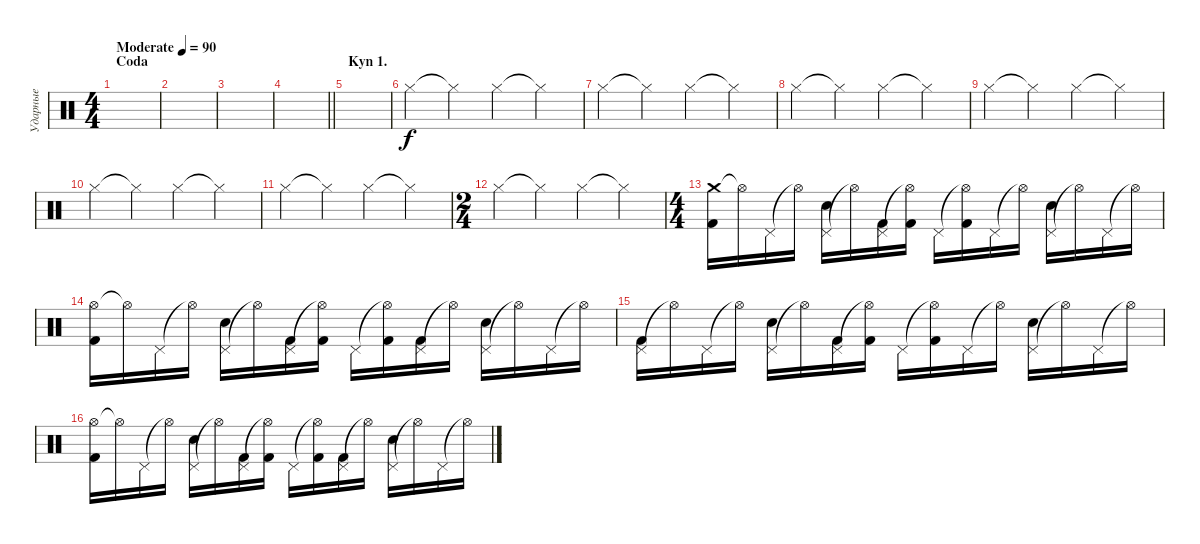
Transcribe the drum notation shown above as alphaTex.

\track ("Ударные" "Ударные") {instrument percussion}
\staff {score}
\articulation defaults
\ts (4 4)
\section ("" "Coda")
\tempo (90 "Moderate")
\clef neutral
\ks c
|
|
|
\barLineRight lightlight
|
\section ("" "Kyn 1.")
|
"Hi-Hat (closed)".4 "Hi-Hat (closed)"{t}.4 "Hi-Hat (closed)".4 "Hi-Hat (closed)"{t}.4 |
"Hi-Hat (closed)".4 "Hi-Hat (closed)"{t}.4 "Hi-Hat (closed)".4 "Hi-Hat (closed)"{t}.4 |
"Hi-Hat (closed)".4 "Hi-Hat (closed)"{t}.4 "Hi-Hat (closed)".4 "Hi-Hat (closed)"{t}.4 |
"Hi-Hat (closed)".4 "Hi-Hat (closed)"{t}.4 "Hi-Hat (closed)".4 "Hi-Hat (closed)"{t}.4 |
"Hi-Hat (closed)".4 "Hi-Hat (closed)"{t}.4 "Hi-Hat (closed)".4 "Hi-Hat (closed)"{t}.4 |
"Hi-Hat (closed)".4 "Hi-Hat (closed)"{t}.4 "Hi-Hat (closed)".4 "Hi-Hat (closed)"{t}.4 |
\ts (2 4)
"Hi-Hat (closed)".4 "Hi-Hat (closed)"{t}.4 "Hi-Hat (closed)".4 "Hi-Hat (closed)"{t}.4 |
\ts (4 4)
("Crash medium (hit)" "Kick (hit) 2").16 "Hi-Hat (open)"{t}.16 "Pedal Hi-Hat (hit)".16 "Hi-Hat (open)"{t}.16 ("Pedal Hi-Hat (hit)" "Snare (hit) 2").16 "Hi-Hat (open)"{t}.16 ("Pedal Hi-Hat (hit)" "Kick (hit) 2").16 ("Hi-Hat (open)"{t} "Kick (hit) 2").16 "Pedal Hi-Hat (hit)".16 ("Hi-Hat (open)"{t} "Kick (hit) 2").16 "Pedal Hi-Hat (hit)".16 "Hi-Hat (open)"{t}.16 ("Pedal Hi-Hat (hit)" "Snare (hit) 2").16 "Hi-Hat (open)"{t}.16 "Pedal Hi-Hat (hit)".16 "Hi-Hat (open)"{t}.16 |
("Hi-Hat (open)" "Kick (hit) 2").16 "Hi-Hat (open)"{t}.16 "Pedal Hi-Hat (hit)".16 "Hi-Hat (open)"{t}.16 ("Pedal Hi-Hat (hit)" "Snare (hit) 2").16 "Hi-Hat (open)"{t}.16 ("Pedal Hi-Hat (hit)" "Kick (hit) 2").16 ("Hi-Hat (open)"{t} "Kick (hit) 2").16 "Pedal Hi-Hat (hit)".16 ("Hi-Hat (open)"{t} "Kick (hit) 2").16 ("Pedal Hi-Hat (hit)" "Kick (hit) 2").16 "Hi-Hat (open)"{t}.16 ("Pedal Hi-Hat (hit)" "Snare (hit) 2").16 "Hi-Hat (open)"{t}.16 "Pedal Hi-Hat (hit)".16 "Hi-Hat (open)"{t}.16 |
("Pedal Hi-Hat (hit)" "Kick (hit) 2").16 "Hi-Hat (open)"{t}.16 "Pedal Hi-Hat (hit)".16 "Hi-Hat (open)"{t}.16 ("Pedal Hi-Hat (hit)" "Snare (hit) 2").16 "Hi-Hat (open)"{t}.16 ("Pedal Hi-Hat (hit)" "Kick (hit) 2").16 ("Hi-Hat (open)"{t} "Kick (hit) 2").16 "Pedal Hi-Hat (hit)".16 ("Hi-Hat (open)"{t} "Kick (hit) 2").16 "Pedal Hi-Hat (hit)".16 "Hi-Hat (open)"{t}.16 ("Pedal Hi-Hat (hit)" "Snare (hit) 2").16 "Hi-Hat (open)"{t}.16 "Pedal Hi-Hat (hit)".16 "Hi-Hat (open)"{t}.16 |
("Hi-Hat (open)" "Kick (hit) 2").16 "Hi-Hat (open)"{t}.16 "Pedal Hi-Hat (hit)".16 "Hi-Hat (open)"{t}.16 ("Pedal Hi-Hat (hit)" "Snare (hit) 2").16 "Hi-Hat (open)"{t}.16 ("Pedal Hi-Hat (hit)" "Kick (hit) 2").16 ("Hi-Hat (open)"{t} "Kick (hit) 2").16 "Pedal Hi-Hat (hit)".16 ("Hi-Hat (open)"{t} "Kick (hit) 2").16 ("Pedal Hi-Hat (hit)" "Kick (hit) 2").16 "Hi-Hat (open)"{t}.16 ("Pedal Hi-Hat (hit)" "Snare (hit) 2").16 "Hi-Hat (open)"{t}.16 "Pedal Hi-Hat (hit)".16 "Hi-Hat (open)"{t}.16
